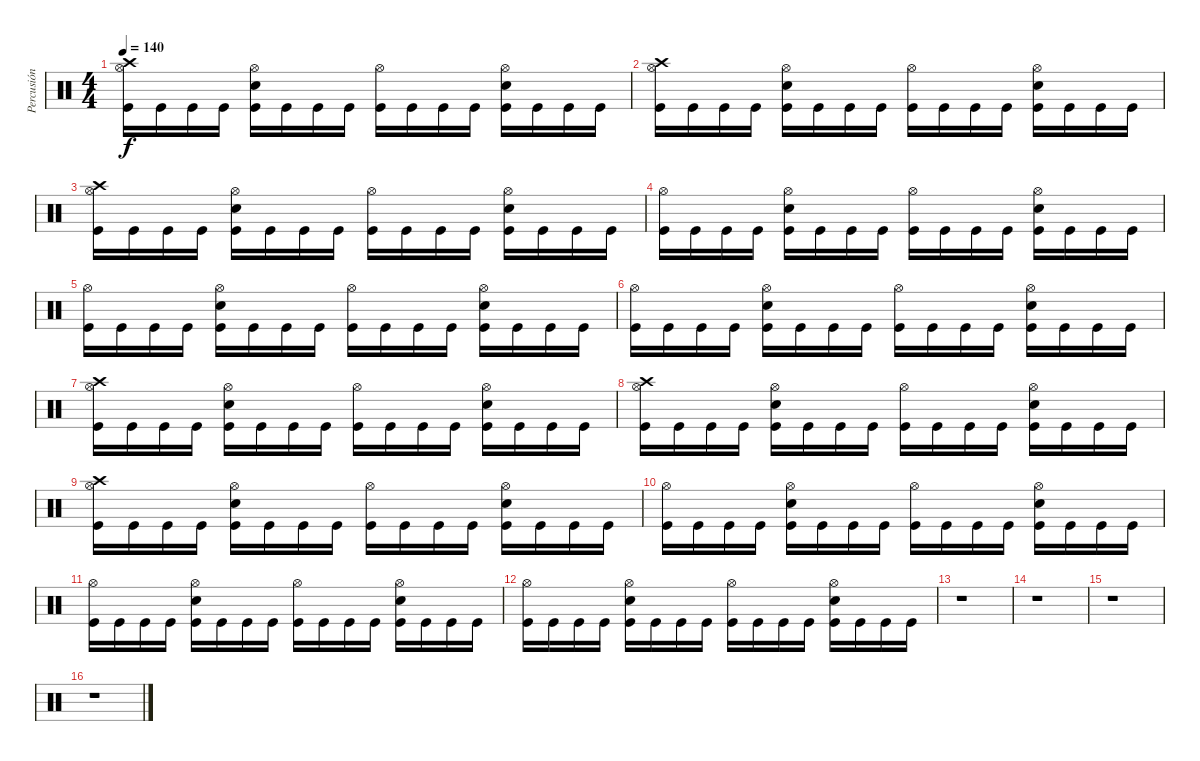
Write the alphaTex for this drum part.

\track ("Percusión" "Percusión") {instrument percussion}
\staff {score}
\articulation defaults
\ts (4 4)
\tempo 140
\clef neutral
\ks c
("Crash high (hit)" "Hi-Hat (open)" "Kick (hit)").16{dy f} "Kick (hit)".16 "Kick (hit)".16 "Kick (hit)".16 ("Snare (hit) 2" "Hi-Hat (open)" "Kick (hit)").16 "Kick (hit)".16 "Kick (hit)".16 "Kick (hit)".16 ("Hi-Hat (open)" "Kick (hit)").16 "Kick (hit)".16 "Kick (hit)".16 "Kick (hit)".16 ("Snare (hit) 2" "Hi-Hat (open)" "Kick (hit)").16 "Kick (hit)".16 "Kick (hit)".16 "Kick (hit)".16 |
("Crash high (hit)" "Hi-Hat (open)" "Kick (hit)").16 "Kick (hit)".16 "Kick (hit)".16 "Kick (hit)".16 ("Snare (hit) 2" "Hi-Hat (open)" "Kick (hit)").16 "Kick (hit)".16 "Kick (hit)".16 "Kick (hit)".16 ("Hi-Hat (open)" "Kick (hit)").16 "Kick (hit)".16 "Kick (hit)".16 "Kick (hit)".16 ("Snare (hit) 2" "Hi-Hat (open)" "Kick (hit)").16 "Kick (hit)".16 "Kick (hit)".16 "Kick (hit)".16 |
("Crash high (hit)" "Hi-Hat (open)" "Kick (hit)").16 "Kick (hit)".16 "Kick (hit)".16 "Kick (hit)".16 ("Snare (hit) 2" "Hi-Hat (open)" "Kick (hit)").16 "Kick (hit)".16 "Kick (hit)".16 "Kick (hit)".16 ("Hi-Hat (open)" "Kick (hit)").16 "Kick (hit)".16 "Kick (hit)".16 "Kick (hit)".16 ("Snare (hit) 2" "Hi-Hat (open)" "Kick (hit)").16 "Kick (hit)".16 "Kick (hit)".16 "Kick (hit)".16 |
("Hi-Hat (open)" "Kick (hit)").16 "Kick (hit)".16 "Kick (hit)".16 "Kick (hit)".16 ("Snare (hit) 2" "Hi-Hat (open)" "Kick (hit)").16 "Kick (hit)".16 "Kick (hit)".16 "Kick (hit)".16 ("Hi-Hat (open)" "Kick (hit)").16 "Kick (hit)".16 "Kick (hit)".16 "Kick (hit)".16 ("Snare (hit) 2" "Hi-Hat (open)" "Kick (hit)").16 "Kick (hit)".16 "Kick (hit)".16 "Kick (hit)".16 |
("Hi-Hat (open)" "Kick (hit)").16 "Kick (hit)".16 "Kick (hit)".16 "Kick (hit)".16 ("Snare (hit) 2" "Hi-Hat (open)" "Kick (hit)").16 "Kick (hit)".16 "Kick (hit)".16 "Kick (hit)".16 ("Hi-Hat (open)" "Kick (hit)").16 "Kick (hit)".16 "Kick (hit)".16 "Kick (hit)".16 ("Snare (hit) 2" "Hi-Hat (open)" "Kick (hit)").16 "Kick (hit)".16 "Kick (hit)".16 "Kick (hit)".16 |
("Hi-Hat (open)" "Kick (hit)").16 "Kick (hit)".16 "Kick (hit)".16 "Kick (hit)".16 ("Snare (hit) 2" "Hi-Hat (open)" "Kick (hit)").16 "Kick (hit)".16 "Kick (hit)".16 "Kick (hit)".16 ("Hi-Hat (open)" "Kick (hit)").16 "Kick (hit)".16 "Kick (hit)".16 "Kick (hit)".16 ("Snare (hit) 2" "Hi-Hat (open)" "Kick (hit)").16 "Kick (hit)".16 "Kick (hit)".16 "Kick (hit)".16 |
("Crash high (hit)" "Hi-Hat (open)" "Kick (hit)").16 "Kick (hit)".16 "Kick (hit)".16 "Kick (hit)".16 ("Snare (hit) 2" "Hi-Hat (open)" "Kick (hit)").16 "Kick (hit)".16 "Kick (hit)".16 "Kick (hit)".16 ("Hi-Hat (open)" "Kick (hit)").16 "Kick (hit)".16 "Kick (hit)".16 "Kick (hit)".16 ("Snare (hit) 2" "Hi-Hat (open)" "Kick (hit)").16 "Kick (hit)".16 "Kick (hit)".16 "Kick (hit)".16 |
("Crash high (hit)" "Hi-Hat (open)" "Kick (hit)").16 "Kick (hit)".16 "Kick (hit)".16 "Kick (hit)".16 ("Snare (hit) 2" "Hi-Hat (open)" "Kick (hit)").16 "Kick (hit)".16 "Kick (hit)".16 "Kick (hit)".16 ("Hi-Hat (open)" "Kick (hit)").16 "Kick (hit)".16 "Kick (hit)".16 "Kick (hit)".16 ("Snare (hit) 2" "Hi-Hat (open)" "Kick (hit)").16 "Kick (hit)".16 "Kick (hit)".16 "Kick (hit)".16 |
("Crash high (hit)" "Hi-Hat (open)" "Kick (hit)").16 "Kick (hit)".16 "Kick (hit)".16 "Kick (hit)".16 ("Snare (hit) 2" "Hi-Hat (open)" "Kick (hit)").16 "Kick (hit)".16 "Kick (hit)".16 "Kick (hit)".16 ("Hi-Hat (open)" "Kick (hit)").16 "Kick (hit)".16 "Kick (hit)".16 "Kick (hit)".16 ("Snare (hit) 2" "Hi-Hat (open)" "Kick (hit)").16 "Kick (hit)".16 "Kick (hit)".16 "Kick (hit)".16 |
("Hi-Hat (open)" "Kick (hit)").16 "Kick (hit)".16 "Kick (hit)".16 "Kick (hit)".16 ("Snare (hit) 2" "Hi-Hat (open)" "Kick (hit)").16 "Kick (hit)".16 "Kick (hit)".16 "Kick (hit)".16 ("Hi-Hat (open)" "Kick (hit)").16 "Kick (hit)".16 "Kick (hit)".16 "Kick (hit)".16 ("Snare (hit) 2" "Hi-Hat (open)" "Kick (hit)").16 "Kick (hit)".16 "Kick (hit)".16 "Kick (hit)".16 |
("Hi-Hat (open)" "Kick (hit)").16 "Kick (hit)".16 "Kick (hit)".16 "Kick (hit)".16 ("Snare (hit) 2" "Hi-Hat (open)" "Kick (hit)").16 "Kick (hit)".16 "Kick (hit)".16 "Kick (hit)".16 ("Hi-Hat (open)" "Kick (hit)").16 "Kick (hit)".16 "Kick (hit)".16 "Kick (hit)".16 ("Snare (hit) 2" "Hi-Hat (open)" "Kick (hit)").16 "Kick (hit)".16 "Kick (hit)".16 "Kick (hit)".16 |
("Hi-Hat (open)" "Kick (hit)").16 "Kick (hit)".16 "Kick (hit)".16 "Kick (hit)".16 ("Snare (hit) 2" "Hi-Hat (open)" "Kick (hit)").16 "Kick (hit)".16 "Kick (hit)".16 "Kick (hit)".16 ("Hi-Hat (open)" "Kick (hit)").16 "Kick (hit)".16 "Kick (hit)".16 "Kick (hit)".16 ("Snare (hit) 2" "Hi-Hat (open)" "Kick (hit)").16 "Kick (hit)".16 "Kick (hit)".16 "Kick (hit)".16 |
r.1 |
r.1 |
r.1 |
r.1
